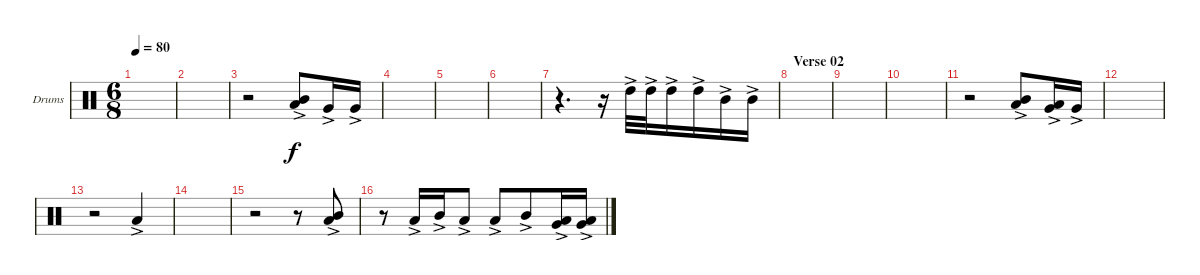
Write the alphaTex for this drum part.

\defaultSystemsLayout 4
\bracketExtendMode groupsimilarinstruments
\firstSystemTrackNameOrientation horizontal
\otherSystemsTrackNameOrientation horizontal
\track ("Drumkit" "Drums") {instrument percussion}
\staff {score}
\articulation defaults
\ts (6 8)
\tempo 80
\clef neutral
\scale
0.333333
\ks c
|
\scale
0.333333 |
\scale
0.333333 r.2 ("Mid Tom (hit)"{ac} "Low Tom (hit)"{ac}).8 "Very Low Tom (hit)"{ac}.16 "Very Low Tom (hit)"{ac}.16 |
\scale
0.333333 |
\scale
0.333333 |
\scale
0.333333 |
\scale
0.333333 r.4{d} r.16 "High Tom (hit)"{ac}.32 "High Tom (hit)"{ac}.32 "High Tom (hit)"{ac}.16 "High Tom (hit)"{ac}.16 "Mid Tom (hit)"{ac}.16 "Mid Tom (hit)"{ac}.16 |
\section ("" "Verse 02")
\scale
0.333333 |
\scale
0.333333 |
\scale
0.333333 |
\scale
0.333333 r.2 ("Mid Tom (hit)"{ac} "Low Tom (hit)"{ac}).8 ("Low Tom (hit)"{ac} "Very Low Tom (hit)"{ac}).16 "Very Low Tom (hit)"{ac}.16 |
\scale
0.333333 |
\scale
0.333333 r.2 "Low Tom (hit)"{ac}.4 |
\scale
0.333333 |
\scale
0.333333 r.2 r.8 ("Mid Tom (hit)"{ac} "Low Tom (hit)"{ac}).8 |
\scale
0.333333 r.8 "Low Tom (hit)"{ac}.16 "Mid Tom (hit)"{ac}.16 "Low Tom (hit)"{ac}.8 "Low Tom (hit)"{ac}.8 "Mid Tom (hit)"{ac}.8 ("Low Tom (hit)"{ac} "Very Low Tom (hit)"{ac}).16 ("Low Tom (hit)"{ac} "Very Low Tom (hit)"{ac}).16
